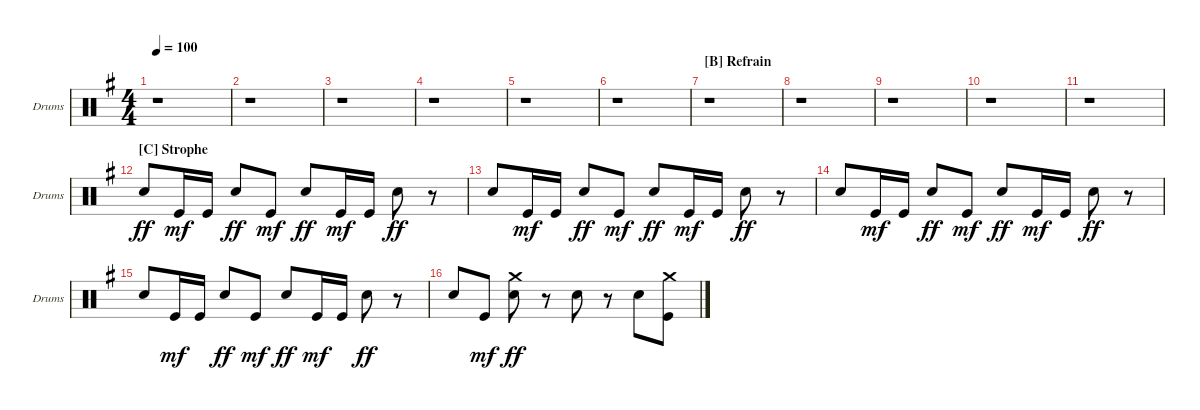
\defaultSystemsLayout 4
\bracketExtendMode groupsimilarinstruments
\singleTrackTrackNamePolicy allsystems
\multiTrackTrackNamePolicy allsystems
\firstSystemTrackNameOrientation horizontal
\otherSystemsTrackNameOrientation horizontal
\track ("Drumkit" "Drums") {instrument percussion}
\staff {score}
\articulation defaults
\ts (4 4)
\tempo 100
\clef neutral
\scale
0.333333
\ks g
r.1{dy ff} |
\scale
0.333333 r.1 |
\scale
0.333333 r.1 |
\scale
0.333333 r.1 |
\scale
0.333333 r.1 |
\scale
0.333333 r.1 |
\section ("B" "Refrain")
\scale
0.333333 r.1 |
\scale
0.333333 r.1 |
\scale
0.333333 r.1 |
\scale
0.333333 r.1 |
\scale
0.333333 r.1 |
\section ("C" "Strophe")
\scale
0.333333 "Snare (hit) 2".8 "Kick (hit)".16{dy mf} "Kick (hit)".16 "Snare (hit) 2".8{dy ff} "Kick (hit)".8{dy mf} "Snare (hit) 2".8{dy ff} "Kick (hit)".16{dy mf} "Kick (hit)".16 "Snare (hit) 2".8{dy ff} r.8 |
\scale
0.333333 "Snare (hit) 2".8 "Kick (hit)".16{dy mf} "Kick (hit)".16 "Snare (hit) 2".8{dy ff} "Kick (hit)".8{dy mf} "Snare (hit) 2".8{dy ff} "Kick (hit)".16{dy mf} "Kick (hit)".16 "Snare (hit) 2".8{dy ff} r.8 |
\scale
0.333333 "Snare (hit) 2".8 "Kick (hit)".16{dy mf} "Kick (hit)".16 "Snare (hit) 2".8{dy ff} "Kick (hit)".8{dy mf} "Snare (hit) 2".8{dy ff} "Kick (hit)".16{dy mf} "Kick (hit)".16 "Snare (hit) 2".8{dy ff} r.8 |
\scale
0.333333 "Snare (hit) 2".8 "Kick (hit)".16{dy mf} "Kick (hit)".16 "Snare (hit) 2".8{dy ff} "Kick (hit)".8{dy mf} "Snare (hit) 2".8{dy ff} "Kick (hit)".16{dy mf} "Kick (hit)".16 "Snare (hit) 2".8{dy ff} r.8 |
\scale
0.333333 "Snare (hit) 2".8 "Kick (hit)".8{dy mf} ("Crash medium (hit)" "Snare (hit) 2").8{dy ff} r.8 "Snare (hit) 2".8 r.8 "Snare (hit) 2".8 ("Kick (hit)" "Crash medium (hit)").8
